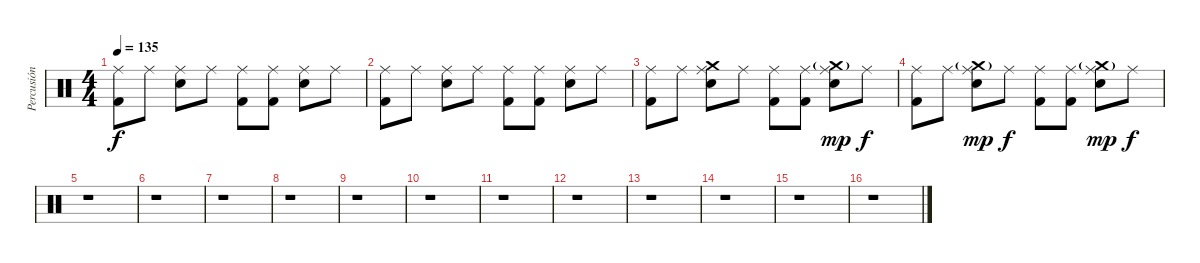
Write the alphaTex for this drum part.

\track ("Percusión" "Percusión") {instrument percussion}
\staff {score}
\articulation defaults
\ts (4 4)
\tempo 135
\clef neutral
\ks c
("Kick (hit) 2" "Ride (middle)").8{dy f} "Ride (middle)".8 ("Snare (hit) 2" "Ride (middle)").8 "Ride (middle)".8 ("Kick (hit) 2" "Ride (middle)").8 ("Kick (hit) 2" "Ride (middle)").8 ("Snare (hit) 2" "Ride (middle)").8 "Ride (middle)".8 |
("Kick (hit) 2" "Ride (middle)").8 "Ride (middle)".8 ("Snare (hit) 2" "Ride (middle)").8 "Ride (middle)".8 ("Kick (hit) 2" "Ride (middle)").8 ("Kick (hit) 2" "Ride (middle)").8 ("Snare (hit) 2" "Ride (middle)").8 "Ride (middle)".8 |
("Kick (hit) 2" "Ride (middle)").8 "Ride (middle)".8 ("Snare (hit) 2" "Ride (middle)" "Crash medium (hit)").8 "Ride (middle)".8 ("Kick (hit) 2" "Ride (middle)").8 ("Kick (hit) 2" "Ride (middle)").8 ("Snare (hit) 2" "Ride (middle)" "Crash medium (hit)"{g}).8{dy mp} "Ride (middle)".8{dy f} |
("Kick (hit) 2" "Ride (middle)").8 "Ride (middle)".8 ("Snare (hit) 2" "Ride (middle)" "Crash medium (hit)"{g}).8{dy mp} "Ride (middle)".8{dy f} ("Kick (hit) 2" "Ride (middle)").8 ("Kick (hit) 2" "Ride (middle)").8 ("Snare (hit) 2" "Ride (middle)" "Crash medium (hit)"{g}).8{dy mp} "Ride (middle)".8{dy f} |
r.1 |
r.1 |
r.1 |
r.1 |
r.1 |
r.1 |
r.1 |
r.1 |
r.1 |
r.1 |
r.1 |
r.1
